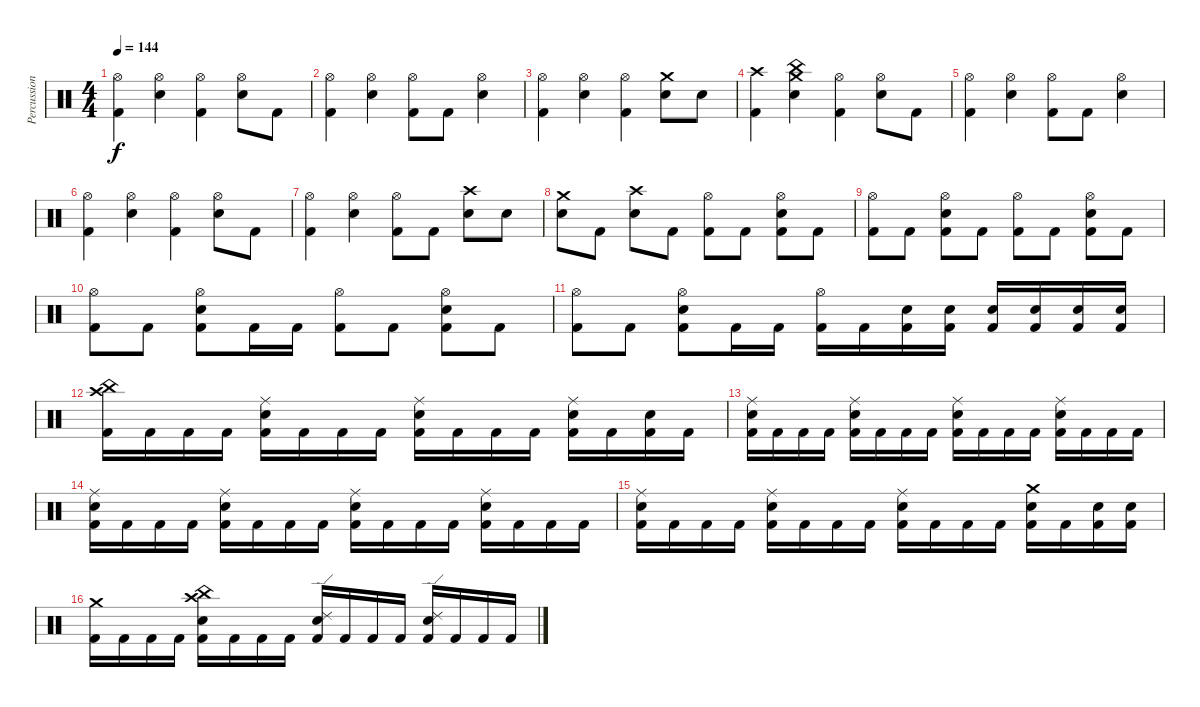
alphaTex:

\track ("Percussion" "Percussion") {instrument percussion}
\staff {score}
\articulation defaults
\ts (4 4)
\tempo 144
\clef neutral
\ks c
("Hi-Hat (open)" "Kick (hit) 2").4{dy f} ("Hi-Hat (open)" "Snare (hit) 2").4 ("Hi-Hat (open)" "Kick (hit) 2").4 ("Hi-Hat (open)" "Snare (hit) 2").8 "Kick (hit) 2".8 |
("Hi-Hat (open)" "Kick (hit) 2").4 ("Hi-Hat (open)" "Snare (hit) 2").4 ("Hi-Hat (open)" "Kick (hit) 2").8 "Kick (hit) 2".8 ("Hi-Hat (open)" "Snare (hit) 2").4 |
("Hi-Hat (open)" "Kick (hit) 2").4 ("Hi-Hat (open)" "Snare (hit) 2").4 ("Hi-Hat (open)" "Kick (hit) 2").4 ("Crash medium (hit)" "Snare (hit) 2").8 "Snare (hit) 2".8 |
("Crash high (hit)" "Kick (hit) 2").4 ("Crash medium (hit)" "China (hit)" "Snare (hit) 2").4 ("Hi-Hat (open)" "Kick (hit) 2").4 ("Hi-Hat (open)" "Snare (hit) 2").8 "Kick (hit) 2".8 |
("Hi-Hat (open)" "Kick (hit) 2").4 ("Hi-Hat (open)" "Snare (hit) 2").4 ("Hi-Hat (open)" "Kick (hit) 2").8 "Kick (hit) 2".8 ("Hi-Hat (open)" "Snare (hit) 2").4 |
("Hi-Hat (open)" "Kick (hit) 2").4 ("Hi-Hat (open)" "Snare (hit) 2").4 ("Hi-Hat (open)" "Kick (hit) 2").4 ("Hi-Hat (open)" "Snare (hit) 2").8 "Kick (hit) 2".8 |
("Hi-Hat (open)" "Kick (hit) 2").4 ("Hi-Hat (open)" "Snare (hit) 2").4 ("Hi-Hat (open)" "Kick (hit) 2").8 "Kick (hit) 2".8 ("Crash high (hit)" "Snare (hit) 2").8 "Snare (hit) 2".8 |
("Crash medium (hit)" "Snare (hit) 2").8 "Kick (hit) 2".8 ("Crash high (hit)" "Snare (hit) 2").8 "Kick (hit) 2".8 ("Hi-Hat (open)" "Kick (hit) 2").8 "Kick (hit) 2".8 ("Hi-Hat (open)" "Snare (hit) 2" "Kick (hit) 2").8 "Kick (hit) 2".8 |
("Hi-Hat (open)" "Kick (hit) 2").8 "Kick (hit) 2".8 ("Hi-Hat (open)" "Snare (hit) 2" "Kick (hit) 2").8 "Kick (hit) 2".8 ("Hi-Hat (open)" "Kick (hit) 2").8 "Kick (hit) 2".8 ("Hi-Hat (open)" "Snare (hit) 2" "Kick (hit) 2").8 "Kick (hit) 2".8 |
("Hi-Hat (open)" "Kick (hit) 2").8 "Kick (hit) 2".8 ("Hi-Hat (open)" "Snare (hit) 2" "Kick (hit) 2").8 "Kick (hit) 2".16 "Kick (hit) 2".16 ("Hi-Hat (open)" "Kick (hit) 2").8 "Kick (hit) 2".8 ("Hi-Hat (open)" "Snare (hit) 2" "Kick (hit) 2").8 "Kick (hit) 2".8 |
("Hi-Hat (open)" "Kick (hit) 2").8 "Kick (hit) 2".8 ("Hi-Hat (open)" "Snare (hit) 2" "Kick (hit) 2").8 "Kick (hit) 2".16 "Kick (hit) 2".16 ("Hi-Hat (open)" "Kick (hit) 2").16 "Kick (hit) 2".16 ("Snare (hit) 2" "Kick (hit) 2").16 ("Snare (hit) 2" "Kick (hit) 2").16 ("Snare (hit) 2" "Kick (hit) 2").16 ("Snare (hit) 2" "Kick (hit) 2").16 ("Snare (hit) 2" "Kick (hit) 2").16 ("Snare (hit) 2" "Kick (hit) 2").16 |
\section ("" "")
("Crash high (hit)" "China (hit)" "Kick (hit) 2").16 "Kick (hit) 2".16 "Kick (hit) 2".16 "Kick (hit) 2".16 ("Ride (middle)" "Snare (hit) 2" "Kick (hit) 2").16 "Kick (hit) 2".16 "Kick (hit) 2".16 "Kick (hit) 2".16 ("Ride (middle)" "Snare (hit) 2" "Kick (hit) 2").16 "Kick (hit) 2".16 "Kick (hit) 2".16 "Kick (hit) 2".16 ("Ride (middle)" "Snare (hit) 2" "Kick (hit) 2").16 "Kick (hit) 2".16 ("Snare (hit) 2" "Kick (hit) 2").16 "Kick (hit) 2".16 |
("Ride (middle)" "Snare (hit) 2" "Kick (hit) 2").16 "Kick (hit) 2".16 "Kick (hit) 2".16 "Kick (hit) 2".16 ("Ride (middle)" "Snare (hit) 2" "Kick (hit) 2").16 "Kick (hit) 2".16 "Kick (hit) 2".16 "Kick (hit) 2".16 ("Ride (middle)" "Snare (hit) 2" "Kick (hit) 2").16 "Kick (hit) 2".16 "Kick (hit) 2".16 "Kick (hit) 2".16 ("Ride (middle)" "Snare (hit) 2" "Kick (hit) 2").16 "Kick (hit) 2".16 "Kick (hit) 2".16 "Kick (hit) 2".16 |
("Ride (middle)" "Snare (hit) 2" "Kick (hit) 2").16 "Kick (hit) 2".16 "Kick (hit) 2".16 "Kick (hit) 2".16 ("Ride (middle)" "Snare (hit) 2" "Kick (hit) 2").16 "Kick (hit) 2".16 "Kick (hit) 2".16 "Kick (hit) 2".16 ("Ride (middle)" "Snare (hit) 2" "Kick (hit) 2").16 "Kick (hit) 2".16 "Kick (hit) 2".16 "Kick (hit) 2".16 ("Ride (middle)" "Snare (hit) 2" "Kick (hit) 2").16 "Kick (hit) 2".16 "Kick (hit) 2".16 "Kick (hit) 2".16 |
("Ride (middle)" "Snare (hit) 2" "Kick (hit) 2").16 "Kick (hit) 2".16 "Kick (hit) 2".16 "Kick (hit) 2".16 ("Ride (middle)" "Snare (hit) 2" "Kick (hit) 2").16 "Kick (hit) 2".16 "Kick (hit) 2".16 "Kick (hit) 2".16 ("Ride (middle)" "Snare (hit) 2" "Kick (hit) 2").16 "Kick (hit) 2".16 "Kick (hit) 2".16 "Kick (hit) 2".16 ("Crash medium (hit)" "Snare (hit) 2" "Kick (hit) 2").16 "Kick (hit) 2".16 ("Snare (hit) 2" "Kick (hit) 2").16 ("Snare (hit) 2" "Kick (hit) 2").16 |
("Crash medium (hit)" "Kick (hit) 2").16 "Kick (hit) 2".16 "Kick (hit) 2".16 "Kick (hit) 2".16 ("Crash high (hit)" "China (hit)" "Snare (hit) 2" "Kick (hit) 2").16 "Kick (hit) 2".16 "Kick (hit) 2".16 "Kick (hit) 2".16 ("Ride (edge) 2" "Snare (hit) 2" "Kick (hit) 2").16 "Kick (hit) 2".16 "Kick (hit) 2".16 "Kick (hit) 2".16 ("Ride (edge) 2" "Snare (hit) 2" "Kick (hit) 2").16 "Kick (hit) 2".16 "Kick (hit) 2".16 "Kick (hit) 2".16
